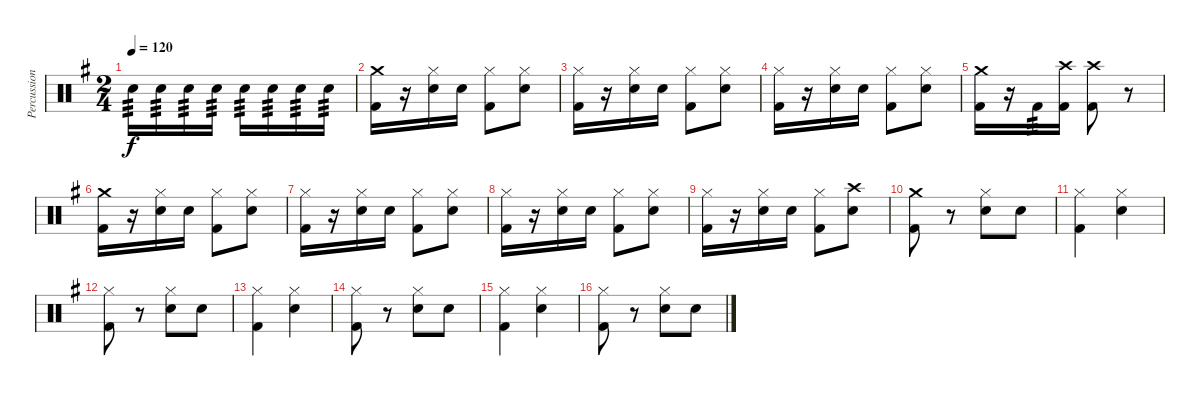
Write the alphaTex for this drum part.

\track ("Percussion" "Percussion") {instrument percussion}
\staff {score}
\articulation defaults
\ts (2 4)
\tempo 120
\clef neutral
\ks g "Snare (hit) 2".16{tp 3 dy f} "Snare (hit) 2".16{tp 3} "Snare (hit) 2".16{tp 3} "Snare (hit) 2".16{tp 3} "Snare (hit) 2".16{tp 3} "Snare (hit) 2".16{tp 3} "Snare (hit) 2".16{tp 3} "Snare (hit) 2".16{tp 3}
|
("Crash medium (hit)" "Kick (hit) 2").16 r.16 ("Hi-Hat (closed)" "Snare (hit) 2").16 "Snare (hit) 2".16 ("Hi-Hat (closed)" "Kick (hit) 2").8 ("Hi-Hat (closed)" "Snare (hit) 2").8 |
("Hi-Hat (closed)" "Kick (hit) 2").16 r.16 ("Hi-Hat (closed)" "Snare (hit) 2").16 "Snare (hit) 2".16 ("Hi-Hat (closed)" "Kick (hit) 2").8 ("Hi-Hat (closed)" "Snare (hit) 2").8 |
("Hi-Hat (closed)" "Kick (hit) 2").16 r.16 ("Hi-Hat (closed)" "Snare (hit) 2").16 "Snare (hit) 2".16 ("Hi-Hat (closed)" "Kick (hit) 2").8 ("Hi-Hat (closed)" "Snare (hit) 2").8 |
("Crash medium (hit)" "Kick (hit) 2").16 r.16 "Kick (hit) 2".16{tp 3} ("Crash high (hit)" "Kick (hit) 2").16 ("Crash high (hit)" "Kick (hit) 2").8 r.8 |
("Crash medium (hit)" "Kick (hit) 2").16 r.16 ("Hi-Hat (closed)" "Snare (hit) 2").16 "Snare (hit) 2".16 ("Hi-Hat (closed)" "Kick (hit) 2").8 ("Hi-Hat (closed)" "Snare (hit) 2").8 |
("Hi-Hat (closed)" "Kick (hit) 2").16 r.16 ("Hi-Hat (closed)" "Snare (hit) 2").16 "Snare (hit) 2".16 ("Hi-Hat (closed)" "Kick (hit) 2").8 ("Hi-Hat (closed)" "Snare (hit) 2").8 |
("Hi-Hat (closed)" "Kick (hit) 2").16 r.16 ("Hi-Hat (closed)" "Snare (hit) 2").16 "Snare (hit) 2".16 ("Hi-Hat (closed)" "Kick (hit) 2").8 ("Hi-Hat (closed)" "Snare (hit) 2").8 |
("Hi-Hat (closed)" "Kick (hit) 2").16 r.16 ("Hi-Hat (closed)" "Snare (hit) 2").16 "Snare (hit) 2".16 ("Hi-Hat (closed)" "Kick (hit) 2").8 ("Crash high (hit)" "Snare (hit) 2").8 |
("Crash medium (hit)" "Kick (hit) 2").8 r.8 ("Hi-Hat (closed)" "Snare (hit) 2").8 "Snare (hit) 2".8 |
("Hi-Hat (closed)" "Kick (hit) 2").4 ("Hi-Hat (closed)" "Snare (hit) 2").4 |
("Hi-Hat (closed)" "Kick (hit) 2").8 r.8 ("Hi-Hat (closed)" "Snare (hit) 2").8 "Snare (hit) 2".8 |
("Hi-Hat (closed)" "Kick (hit) 2").4 ("Hi-Hat (closed)" "Snare (hit) 2").4 |
("Hi-Hat (closed)" "Kick (hit) 2").8 r.8 ("Hi-Hat (closed)" "Snare (hit) 2").8 "Snare (hit) 2".8 |
("Hi-Hat (closed)" "Kick (hit) 2").4 ("Hi-Hat (closed)" "Snare (hit) 2").4 |
("Hi-Hat (closed)" "Kick (hit) 2").8 r.8 ("Hi-Hat (closed)" "Snare (hit) 2").8 "Snare (hit) 2".8
